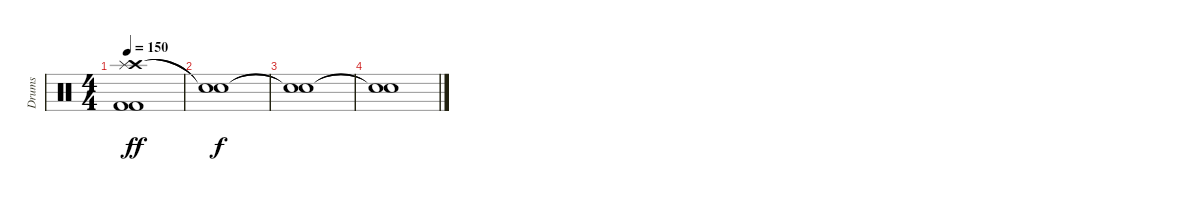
\track ("Drums" "Drums") {instrument percussion}
\staff {score}
\articulation defaults
\ts (4 4)
\tempo 150
\clef neutral
\ks c
("Crash high (hit)" "Splash (hit)" "Kick (hit) 2" "Kick (hit) 2").1{dy ff volume 11} |
("Snare (hit)"{t} "Snare (hit)"{t}).1{dy f} |
("Snare (hit)"{t} "Snare (hit)"{t}).1 |
("Snare (hit)"{t} "Snare (hit)"{t}).1
